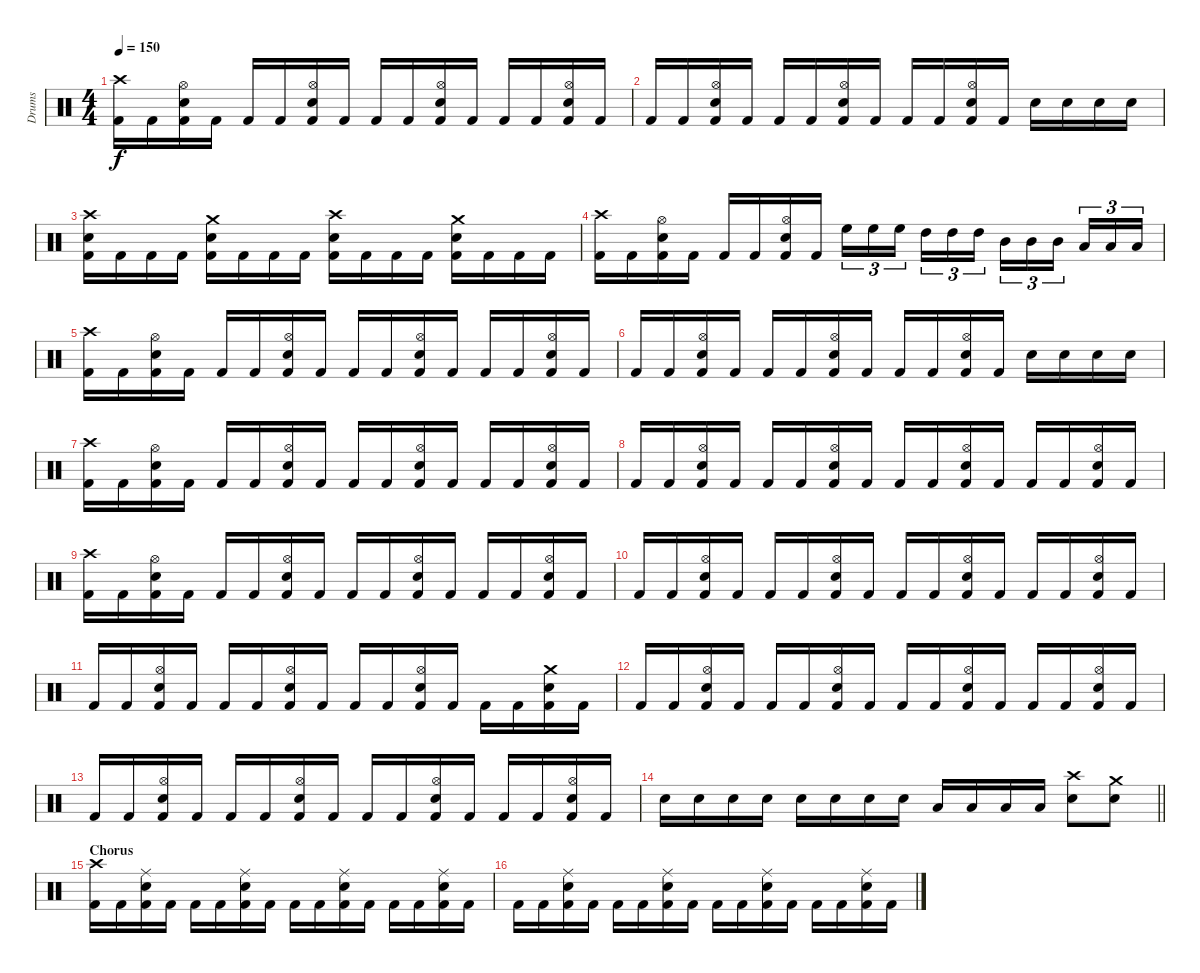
\track ("Drums" "Drums") {instrument percussion}
\staff {score}
\articulation defaults
\ts (4 4)
\tempo 150
\clef neutral
\ks c
("Crash high (hit)" "Kick (hit) 2").16{dy f} "Kick (hit) 2".16 ("Hi-Hat (open)" "Snare (hit) 2" "Kick (hit) 2").16 "Kick (hit) 2".16 "Kick (hit) 2".16 "Kick (hit) 2".16 ("Hi-Hat (open)" "Snare (hit) 2" "Kick (hit) 2").16 "Kick (hit) 2".16 "Kick (hit) 2".16 "Kick (hit) 2".16 ("Hi-Hat (open)" "Snare (hit) 2" "Kick (hit) 2").16 "Kick (hit) 2".16 "Kick (hit) 2".16 "Kick (hit) 2".16 ("Hi-Hat (open)" "Snare (hit) 2" "Kick (hit) 2").16 "Kick (hit) 2".16 |
"Kick (hit) 2".16 "Kick (hit) 2".16 ("Hi-Hat (open)" "Snare (hit) 2" "Kick (hit) 2").16 "Kick (hit) 2".16 "Kick (hit) 2".16 "Kick (hit) 2".16 ("Hi-Hat (open)" "Snare (hit) 2" "Kick (hit) 2").16 "Kick (hit) 2".16 "Kick (hit) 2".16 "Kick (hit) 2".16 ("Hi-Hat (open)" "Snare (hit) 2" "Kick (hit) 2").16 "Kick (hit) 2".16 "Snare (hit) 2".16 "Snare (hit) 2".16 "Snare (hit) 2".16 "Snare (hit) 2".16 |
("Crash high (hit)" "Snare (hit) 2" "Kick (hit) 2").16 "Kick (hit) 2".16 "Kick (hit) 2".16 "Kick (hit) 2".16 ("Crash medium (hit)" "Snare (hit) 2" "Kick (hit) 2").16 "Kick (hit) 2".16 "Kick (hit) 2".16 "Kick (hit) 2".16 ("Crash high (hit)" "Snare (hit) 2" "Kick (hit) 2").16 "Kick (hit) 2".16 "Kick (hit) 2".16 "Kick (hit) 2".16 ("Crash medium (hit)" "Snare (hit) 2" "Kick (hit) 2").16 "Kick (hit) 2".16 "Kick (hit) 2".16 "Kick (hit) 2".16 |
("Crash high (hit)" "Kick (hit) 2").16 "Kick (hit) 2".16 ("Hi-Hat (open)" "Snare (hit) 2" "Kick (hit) 2").16 "Kick (hit) 2".16 "Kick (hit) 2".16 "Kick (hit) 2".16 ("Hi-Hat (open)" "Snare (hit) 2" "Kick (hit) 2").16 "Kick (hit) 2".16 "High Floor Tom (hit)".16{tu (3 2)} "High Floor Tom (hit)".16{tu (3 2)} "High Floor Tom (hit)".16{tu (3 2) beam splitsecondary} "High Tom (hit)".16{tu (3 2)} "High Tom (hit)".16{tu (3 2)} "High Tom (hit)".16{tu (3 2)} "Mid Tom (hit)".16{tu (3 2)} "Mid Tom (hit)".16{tu (3 2)} "Mid Tom (hit)".16{tu (3 2) beam splitsecondary} "Low Tom (hit)".16{tu (3 2)} "Low Tom (hit)".16{tu (3 2)} "Low Tom (hit)".16{tu (3 2)} |
("Crash high (hit)" "Kick (hit) 2").16 "Kick (hit) 2".16 ("Hi-Hat (open)" "Snare (hit) 2" "Kick (hit) 2").16 "Kick (hit) 2".16 "Kick (hit) 2".16 "Kick (hit) 2".16 ("Hi-Hat (open)" "Snare (hit) 2" "Kick (hit) 2").16 "Kick (hit) 2".16 "Kick (hit) 2".16 "Kick (hit) 2".16 ("Hi-Hat (open)" "Snare (hit) 2" "Kick (hit) 2").16 "Kick (hit) 2".16 "Kick (hit) 2".16 "Kick (hit) 2".16 ("Hi-Hat (open)" "Snare (hit) 2" "Kick (hit) 2").16 "Kick (hit) 2".16 |
"Kick (hit) 2".16 "Kick (hit) 2".16 ("Hi-Hat (open)" "Snare (hit) 2" "Kick (hit) 2").16 "Kick (hit) 2".16 "Kick (hit) 2".16 "Kick (hit) 2".16 ("Hi-Hat (open)" "Snare (hit) 2" "Kick (hit) 2").16 "Kick (hit) 2".16 "Kick (hit) 2".16 "Kick (hit) 2".16 ("Hi-Hat (open)" "Snare (hit) 2" "Kick (hit) 2").16 "Kick (hit) 2".16 "Snare (hit) 2".16 "Snare (hit) 2".16 "Snare (hit) 2".16 "Snare (hit) 2".16 |
("Crash high (hit)" "Kick (hit) 2").16 "Kick (hit) 2".16 ("Hi-Hat (open)" "Snare (hit) 2" "Kick (hit) 2").16 "Kick (hit) 2".16 "Kick (hit) 2".16 "Kick (hit) 2".16 ("Hi-Hat (open)" "Snare (hit) 2" "Kick (hit) 2").16 "Kick (hit) 2".16 "Kick (hit) 2".16 "Kick (hit) 2".16 ("Hi-Hat (open)" "Snare (hit) 2" "Kick (hit) 2").16 "Kick (hit) 2".16 "Kick (hit) 2".16 "Kick (hit) 2".16 ("Hi-Hat (open)" "Snare (hit) 2" "Kick (hit) 2").16 "Kick (hit) 2".16 |
"Kick (hit) 2".16 "Kick (hit) 2".16 ("Hi-Hat (open)" "Snare (hit) 2" "Kick (hit) 2").16 "Kick (hit) 2".16 "Kick (hit) 2".16 "Kick (hit) 2".16 ("Hi-Hat (open)" "Snare (hit) 2" "Kick (hit) 2").16 "Kick (hit) 2".16 "Kick (hit) 2".16 "Kick (hit) 2".16 ("Hi-Hat (open)" "Snare (hit) 2" "Kick (hit) 2").16 "Kick (hit) 2".16 "Kick (hit) 2".16 "Kick (hit) 2".16 ("Hi-Hat (open)" "Snare (hit) 2" "Kick (hit) 2").16 "Kick (hit) 2".16 |
("Crash high (hit)" "Kick (hit) 2").16 "Kick (hit) 2".16 ("Hi-Hat (open)" "Snare (hit) 2" "Kick (hit) 2").16 "Kick (hit) 2".16 "Kick (hit) 2".16 "Kick (hit) 2".16 ("Hi-Hat (open)" "Snare (hit) 2" "Kick (hit) 2").16 "Kick (hit) 2".16 "Kick (hit) 2".16 "Kick (hit) 2".16 ("Hi-Hat (open)" "Snare (hit) 2" "Kick (hit) 2").16 "Kick (hit) 2".16 "Kick (hit) 2".16 "Kick (hit) 2".16 ("Hi-Hat (open)" "Snare (hit) 2" "Kick (hit) 2").16 "Kick (hit) 2".16 |
"Kick (hit) 2".16 "Kick (hit) 2".16 ("Hi-Hat (open)" "Snare (hit) 2" "Kick (hit) 2").16 "Kick (hit) 2".16 "Kick (hit) 2".16 "Kick (hit) 2".16 ("Hi-Hat (open)" "Snare (hit) 2" "Kick (hit) 2").16 "Kick (hit) 2".16 "Kick (hit) 2".16 "Kick (hit) 2".16 ("Hi-Hat (open)" "Snare (hit) 2" "Kick (hit) 2").16 "Kick (hit) 2".16 "Kick (hit) 2".16 "Kick (hit) 2".16 ("Hi-Hat (open)" "Snare (hit) 2" "Kick (hit) 2").16 "Kick (hit) 2".16 |
"Kick (hit) 2".16 "Kick (hit) 2".16 ("Hi-Hat (open)" "Snare (hit) 2" "Kick (hit) 2").16 "Kick (hit) 2".16 "Kick (hit) 2".16 "Kick (hit) 2".16 ("Hi-Hat (open)" "Snare (hit) 2" "Kick (hit) 2").16 "Kick (hit) 2".16 "Kick (hit) 2".16 "Kick (hit) 2".16 ("Hi-Hat (open)" "Snare (hit) 2" "Kick (hit) 2").16 "Kick (hit) 2".16 "Kick (hit) 2".16 "Kick (hit) 2".16 ("Crash medium (hit)" "Snare (hit) 2" "Kick (hit) 2").16 "Kick (hit) 2".16 |
"Kick (hit) 2".16 "Kick (hit) 2".16 ("Hi-Hat (open)" "Snare (hit) 2" "Kick (hit) 2").16 "Kick (hit) 2".16 "Kick (hit) 2".16 "Kick (hit) 2".16 ("Hi-Hat (open)" "Snare (hit) 2" "Kick (hit) 2").16 "Kick (hit) 2".16 "Kick (hit) 2".16 "Kick (hit) 2".16 ("Hi-Hat (open)" "Snare (hit) 2" "Kick (hit) 2").16 "Kick (hit) 2".16 "Kick (hit) 2".16 "Kick (hit) 2".16 ("Hi-Hat (open)" "Snare (hit) 2" "Kick (hit) 2").16 "Kick (hit) 2".16 |
"Kick (hit) 2".16 "Kick (hit) 2".16 ("Hi-Hat (open)" "Snare (hit) 2" "Kick (hit) 2").16 "Kick (hit) 2".16 "Kick (hit) 2".16 "Kick (hit) 2".16 ("Hi-Hat (open)" "Snare (hit) 2" "Kick (hit) 2").16 "Kick (hit) 2".16 "Kick (hit) 2".16 "Kick (hit) 2".16 ("Hi-Hat (open)" "Snare (hit) 2" "Kick (hit) 2").16 "Kick (hit) 2".16 "Kick (hit) 2".16 "Kick (hit) 2".16 ("Hi-Hat (open)" "Snare (hit) 2" "Kick (hit) 2").16 "Kick (hit) 2".16 |
\barLineRight lightlight "Snare (hit) 2".16 "Snare (hit) 2".16 "Snare (hit) 2".16 "Snare (hit) 2".16 "Electric Snare (hit)".16 "Electric Snare (hit)".16 "Electric Snare (hit)".16 "Electric Snare (hit)".16 "Low Tom (hit)".16 "Low Tom (hit)".16 "Low Tom (hit)".16 "Low Tom (hit)".16
("Crash high (hit)" "Snare (hit) 2").8 ("Crash medium (hit)" "Snare (hit) 2").8 |
\section ("" "Chorus")
("Crash high (hit)" "Kick (hit) 2").16 "Kick (hit) 2".16 ("Ride (middle)" "Snare (hit) 2" "Kick (hit) 2").16 "Kick (hit) 2".16 "Kick (hit) 2".16 "Kick (hit) 2".16 ("Ride (middle)" "Snare (hit) 2" "Kick (hit) 2").16 "Kick (hit) 2".16 "Kick (hit) 2".16 "Kick (hit) 2".16 ("Ride (middle)" "Snare (hit) 2" "Kick (hit) 2").16 "Kick (hit) 2".16 "Kick (hit) 2".16 "Kick (hit) 2".16 ("Ride (middle)" "Snare (hit) 2" "Kick (hit) 2").16 "Kick (hit) 2".16 |
"Kick (hit) 2".16 "Kick (hit) 2".16 ("Ride (middle)" "Snare (hit) 2" "Kick (hit) 2").16 "Kick (hit) 2".16 "Kick (hit) 2".16 "Kick (hit) 2".16 ("Ride (middle)" "Snare (hit) 2" "Kick (hit) 2").16 "Kick (hit) 2".16 "Kick (hit) 2".16 "Kick (hit) 2".16 ("Ride (middle)" "Snare (hit) 2" "Kick (hit) 2").16 "Kick (hit) 2".16 "Kick (hit) 2".16 "Kick (hit) 2".16 ("Ride (middle)" "Snare (hit) 2" "Kick (hit) 2").16 "Kick (hit) 2".16
